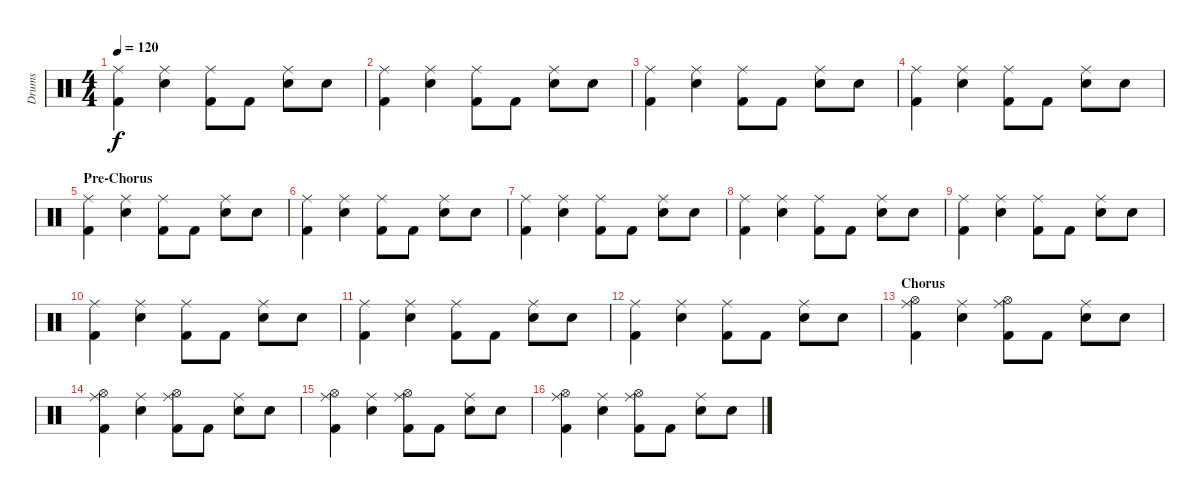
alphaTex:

\track ("Drums" "Drums") {instrument percussion}
\staff {score}
\articulation defaults
\ts (4 4)
\tempo 120
\clef neutral
\ks c
("Ride (middle)" "Kick (hit) 2").4{dy f} ("Ride (middle)" "Snare (hit) 2").4 ("Ride (middle)" "Kick (hit) 2").8 "Kick (hit) 2".8 ("Ride (middle)" "Snare (hit) 2").8 "Snare (hit) 2".8 |
("Ride (middle)" "Kick (hit) 2").4 ("Ride (middle)" "Snare (hit) 2").4 ("Ride (middle)" "Kick (hit) 2").8 "Kick (hit) 2".8 ("Ride (middle)" "Snare (hit) 2").8 "Snare (hit) 2".8 |
("Ride (middle)" "Kick (hit) 2").4 ("Ride (middle)" "Snare (hit) 2").4 ("Ride (middle)" "Kick (hit) 2").8 "Kick (hit) 2".8 ("Ride (middle)" "Snare (hit) 2").8 "Snare (hit) 2".8 |
("Ride (middle)" "Kick (hit) 2").4 ("Ride (middle)" "Snare (hit) 2").4 ("Ride (middle)" "Kick (hit) 2").8 "Kick (hit) 2".8 ("Ride (middle)" "Snare (hit) 2").8 "Snare (hit) 2".8 |
\section ("" "Pre-Chorus")
("Ride (middle)" "Kick (hit) 2").4 ("Ride (middle)" "Snare (hit) 2").4 ("Ride (middle)" "Kick (hit) 2").8 "Kick (hit) 2".8 ("Ride (middle)" "Snare (hit) 2").8 "Snare (hit) 2".8 |
("Ride (middle)" "Kick (hit) 2").4 ("Ride (middle)" "Snare (hit) 2").4 ("Ride (middle)" "Kick (hit) 2").8 "Kick (hit) 2".8 ("Ride (middle)" "Snare (hit) 2").8 "Snare (hit) 2".8 |
("Ride (middle)" "Kick (hit) 2").4 ("Ride (middle)" "Snare (hit) 2").4 ("Ride (middle)" "Kick (hit) 2").8 "Kick (hit) 2".8 ("Ride (middle)" "Snare (hit) 2").8 "Snare (hit) 2".8 |
("Ride (middle)" "Kick (hit) 2").4 ("Ride (middle)" "Snare (hit) 2").4 ("Ride (middle)" "Kick (hit) 2").8 "Kick (hit) 2".8 ("Ride (middle)" "Snare (hit) 2").8 "Snare (hit) 2".8 |
("Ride (middle)" "Kick (hit) 2").4 ("Ride (middle)" "Snare (hit) 2").4 ("Ride (middle)" "Kick (hit) 2").8 "Kick (hit) 2".8 ("Ride (middle)" "Snare (hit) 2").8 "Snare (hit) 2".8 |
("Ride (middle)" "Kick (hit) 2").4 ("Ride (middle)" "Snare (hit) 2").4 ("Ride (middle)" "Kick (hit) 2").8 "Kick (hit) 2".8 ("Ride (middle)" "Snare (hit) 2").8 "Snare (hit) 2".8 |
("Ride (middle)" "Kick (hit) 2").4 ("Ride (middle)" "Snare (hit) 2").4 ("Ride (middle)" "Kick (hit) 2").8 "Kick (hit) 2".8 ("Ride (middle)" "Snare (hit) 2").8 "Snare (hit) 2".8 |
("Ride (middle)" "Kick (hit) 2").4 ("Ride (middle)" "Snare (hit) 2").4 ("Ride (middle)" "Kick (hit) 2").8 "Kick (hit) 2".8 ("Ride (middle)" "Snare (hit) 2").8 "Snare (hit) 2".8 |
\section ("" "Chorus")
("Ride (middle)" "Kick (hit) 2" "Hi-Hat (open)").4 ("Ride (middle)" "Snare (hit) 2").4 ("Ride (middle)" "Kick (hit) 2" "Hi-Hat (open)").8 "Kick (hit) 2".8 ("Ride (middle)" "Snare (hit) 2").8 "Snare (hit) 2".8 |
("Ride (middle)" "Kick (hit) 2" "Hi-Hat (open)").4 ("Ride (middle)" "Snare (hit) 2").4 ("Ride (middle)" "Kick (hit) 2" "Hi-Hat (open)").8 "Kick (hit) 2".8 ("Ride (middle)" "Snare (hit) 2").8 "Snare (hit) 2".8 |
("Ride (middle)" "Kick (hit) 2" "Hi-Hat (open)").4 ("Ride (middle)" "Snare (hit) 2").4 ("Ride (middle)" "Kick (hit) 2" "Hi-Hat (open)").8 "Kick (hit) 2".8 ("Ride (middle)" "Snare (hit) 2").8 "Snare (hit) 2".8 |
("Ride (middle)" "Kick (hit) 2" "Hi-Hat (open)").4 ("Ride (middle)" "Snare (hit) 2").4 ("Ride (middle)" "Kick (hit) 2" "Hi-Hat (open)").8 "Kick (hit) 2".8 ("Ride (middle)" "Snare (hit) 2").8 "Snare (hit) 2".8
